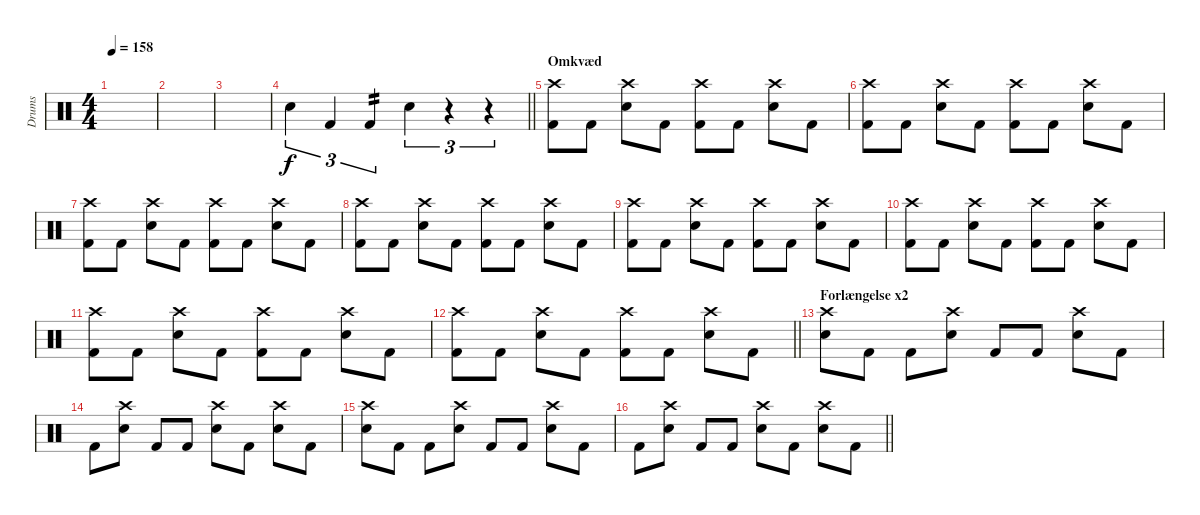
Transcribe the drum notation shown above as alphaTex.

\track ("Drums" "Drums") {instrument percussion}
\staff {score}
\articulation defaults
\ts (4 4)
\tempo 158
\clef neutral
\ks c
|
|
|
\barLineRight lightlight "Electric Snare (hit)".4{tu (3 2)} "Kick (hit) 2".4{tu (3 2)} "Kick (hit) 2".4{tu (3 2) tp 2} "Electric Snare (hit)".4{tu (3 2)}
r.4{tu (3 2)} r.4{tu (3 2)} |
\section ("" "Omkvæd")
("Crash high (hit)" "Kick (hit) 2").8 "Kick (hit) 2".8 ("Crash high (hit)" "Electric Snare (hit)").8 "Kick (hit) 2".8 ("Crash high (hit)" "Kick (hit) 2").8 "Kick (hit) 2".8 ("Crash high (hit)" "Electric Snare (hit)").8 "Kick (hit) 2".8 |
("Crash high (hit)" "Kick (hit) 2").8 "Kick (hit) 2".8 ("Crash high (hit)" "Electric Snare (hit)").8 "Kick (hit) 2".8 ("Crash high (hit)" "Kick (hit) 2").8 "Kick (hit) 2".8 ("Crash high (hit)" "Electric Snare (hit)").8 "Kick (hit) 2".8 |
("Crash high (hit)" "Kick (hit) 2").8 "Kick (hit) 2".8 ("Crash high (hit)" "Electric Snare (hit)").8 "Kick (hit) 2".8 ("Crash high (hit)" "Kick (hit) 2").8 "Kick (hit) 2".8 ("Crash high (hit)" "Electric Snare (hit)").8 "Kick (hit) 2".8 |
("Crash high (hit)" "Kick (hit) 2").8 "Kick (hit) 2".8 ("Crash high (hit)" "Electric Snare (hit)").8 "Kick (hit) 2".8 ("Crash high (hit)" "Kick (hit) 2").8 "Kick (hit) 2".8 ("Crash high (hit)" "Electric Snare (hit)").8 "Kick (hit) 2".8 |
("Crash high (hit)" "Kick (hit) 2").8 "Kick (hit) 2".8 ("Crash high (hit)" "Electric Snare (hit)").8 "Kick (hit) 2".8 ("Crash high (hit)" "Kick (hit) 2").8 "Kick (hit) 2".8 ("Crash high (hit)" "Electric Snare (hit)").8 "Kick (hit) 2".8 |
("Crash high (hit)" "Kick (hit) 2").8 "Kick (hit) 2".8 ("Crash high (hit)" "Electric Snare (hit)").8 "Kick (hit) 2".8 ("Crash high (hit)" "Kick (hit) 2").8 "Kick (hit) 2".8 ("Crash high (hit)" "Electric Snare (hit)").8 "Kick (hit) 2".8 |
("Crash high (hit)" "Kick (hit) 2").8 "Kick (hit) 2".8 ("Crash high (hit)" "Electric Snare (hit)").8 "Kick (hit) 2".8 ("Crash high (hit)" "Kick (hit) 2").8 "Kick (hit) 2".8 ("Crash high (hit)" "Electric Snare (hit)").8 "Kick (hit) 2".8 |
\barLineRight lightlight
("Crash high (hit)" "Kick (hit) 2").8 "Kick (hit) 2".8 ("Crash high (hit)" "Electric Snare (hit)").8 "Kick (hit) 2".8 ("Crash high (hit)" "Kick (hit) 2").8 "Kick (hit) 2".8 ("Crash high (hit)" "Electric Snare (hit)").8 "Kick (hit) 2".8 |
\section ("" "Forlængelse x2")
("Crash high (hit)" "Electric Snare (hit)").8 "Kick (hit) 2".8 "Kick (hit) 2".8 ("Crash high (hit)" "Electric Snare (hit)").8 "Kick (hit) 2".8 "Kick (hit) 2".8 ("Crash high (hit)" "Electric Snare (hit)").8 "Kick (hit) 2".8 |
"Kick (hit) 2".8 ("Crash high (hit)" "Electric Snare (hit)").8 "Kick (hit) 2".8 "Kick (hit) 2".8 ("Crash high (hit)" "Electric Snare (hit)").8 "Kick (hit) 2".8 ("Crash high (hit)" "Electric Snare (hit)").8 "Kick (hit) 2".8 |
("Crash high (hit)" "Electric Snare (hit)").8 "Kick (hit) 2".8 "Kick (hit) 2".8 ("Crash high (hit)" "Electric Snare (hit)").8 "Kick (hit) 2".8 "Kick (hit) 2".8 ("Crash high (hit)" "Electric Snare (hit)").8 "Kick (hit) 2".8 |
\barLineRight lightlight "Kick (hit) 2".8
("Crash high (hit)" "Electric Snare (hit)").8 "Kick (hit) 2".8 "Kick (hit) 2".8 ("Crash high (hit)" "Electric Snare (hit)").8 "Kick (hit) 2".8 ("Crash high (hit)" "Electric Snare (hit)").8 "Kick (hit) 2".8
